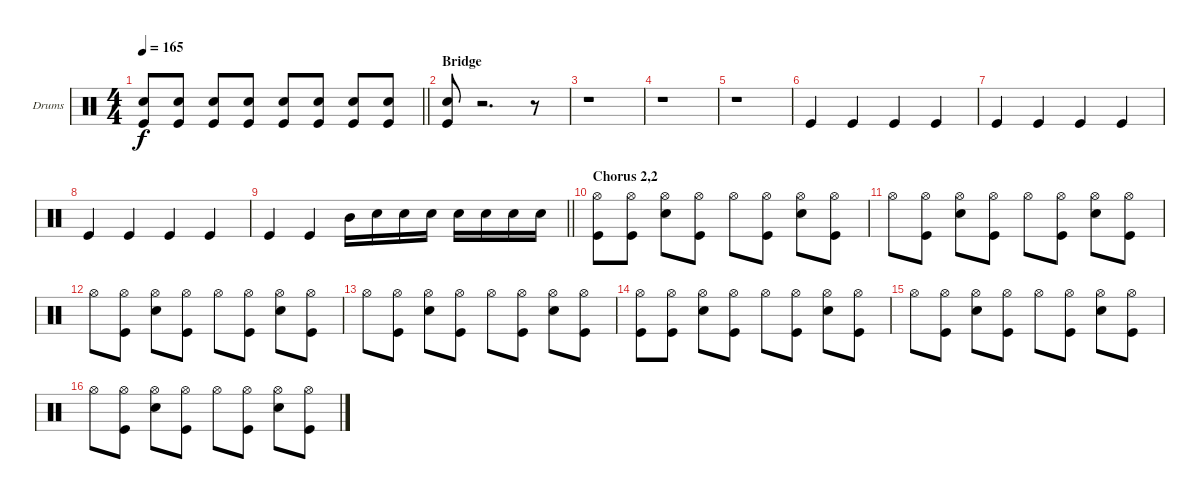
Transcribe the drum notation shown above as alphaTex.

\bracketExtendMode groupsimilarinstruments
\firstSystemTrackNameOrientation horizontal
\otherSystemsTrackNameOrientation horizontal
\track ("Fabrizio" "Drums") {instrument percussion}
\staff {score}
\articulation defaults
\ts (4 4)
\tempo 165
\clef neutral
\barLineRight lightlight
\ks c
("Snare (hit) 2" "Kick (hit)").8{dy f} ("Snare (hit) 2" "Kick (hit)").8 ("Snare (hit) 2" "Kick (hit)").8 ("Snare (hit) 2" "Kick (hit)").8 ("Snare (hit) 2" "Kick (hit)").8 ("Snare (hit) 2" "Kick (hit)").8 ("Snare (hit) 2" "Kick (hit)").8 ("Snare (hit) 2" "Kick (hit)").8 |
\section ("" "Bridge")
("Snare (hit) 2" "Kick (hit)").8 r.2{d} r.8 |
r.1 |
r.1 |
r.1 |
"Kick (hit)".4 "Kick (hit)".4 "Kick (hit)".4 "Kick (hit)".4 |
"Kick (hit)".4 "Kick (hit)".4 "Kick (hit)".4 "Kick (hit)".4 |
"Kick (hit)".4 "Kick (hit)".4 "Kick (hit)".4 "Kick (hit)".4 |
\barLineRight lightlight "Kick (hit)".4 "Kick (hit)".4 "Mid Tom (hit)".16 "Snare (hit) 2".16 "Snare (hit) 2".16 "Snare (hit) 2".16 "Snare (hit) 2".16 "Snare (hit) 2".16 "Snare (hit) 2".16 "Snare (hit) 2".16
|
\section ("" "Chorus 2,2")
("Kick (hit)" "Hi-Hat (open)").8 ("Kick (hit)" "Hi-Hat (open)").8 ("Snare (hit) 2" "Hi-Hat (open)").8 ("Kick (hit)" "Hi-Hat (open)").8 "Hi-Hat (open)".8 ("Kick (hit)" "Hi-Hat (open)").8 ("Snare (hit) 2" "Hi-Hat (open)").8 ("Kick (hit)" "Hi-Hat (open)").8 |
"Hi-Hat (open)".8 ("Hi-Hat (open)" "Kick (hit)").8 ("Hi-Hat (open)" "Snare (hit) 2").8 ("Hi-Hat (open)" "Kick (hit)").8 "Hi-Hat (open)".8 ("Hi-Hat (open)" "Kick (hit)").8 ("Hi-Hat (open)" "Snare (hit) 2").8 ("Hi-Hat (open)" "Kick (hit)").8 |
"Hi-Hat (open)".8 ("Hi-Hat (open)" "Kick (hit)").8 ("Hi-Hat (open)" "Snare (hit) 2").8 ("Hi-Hat (open)" "Kick (hit)").8 "Hi-Hat (open)".8 ("Hi-Hat (open)" "Kick (hit)").8 ("Hi-Hat (open)" "Snare (hit) 2").8 ("Hi-Hat (open)" "Kick (hit)").8 |
"Hi-Hat (open)".8 ("Hi-Hat (open)" "Kick (hit)").8 ("Hi-Hat (open)" "Snare (hit) 2").8 ("Hi-Hat (open)" "Kick (hit)").8 "Hi-Hat (open)".8 ("Hi-Hat (open)" "Kick (hit)").8 ("Hi-Hat (open)" "Snare (hit) 2").8 ("Hi-Hat (open)" "Kick (hit)").8 |
("Hi-Hat (open)" "Kick (hit)").8 ("Hi-Hat (open)" "Kick (hit)").8 ("Hi-Hat (open)" "Snare (hit) 2").8 ("Hi-Hat (open)" "Kick (hit)").8 "Hi-Hat (open)".8 ("Hi-Hat (open)" "Kick (hit)").8 ("Hi-Hat (open)" "Snare (hit) 2").8 ("Hi-Hat (open)" "Kick (hit)").8 |
"Hi-Hat (open)".8 ("Hi-Hat (open)" "Kick (hit)").8 ("Hi-Hat (open)" "Snare (hit) 2").8 ("Hi-Hat (open)" "Kick (hit)").8 "Hi-Hat (open)".8 ("Hi-Hat (open)" "Kick (hit)").8 ("Hi-Hat (open)" "Snare (hit) 2").8 ("Hi-Hat (open)" "Kick (hit)").8 |
"Hi-Hat (open)".8 ("Hi-Hat (open)" "Kick (hit)").8 ("Hi-Hat (open)" "Snare (hit) 2").8 ("Hi-Hat (open)" "Kick (hit)").8 "Hi-Hat (open)".8 ("Hi-Hat (open)" "Kick (hit)").8 ("Hi-Hat (open)" "Snare (hit) 2").8 ("Hi-Hat (open)" "Kick (hit)").8
